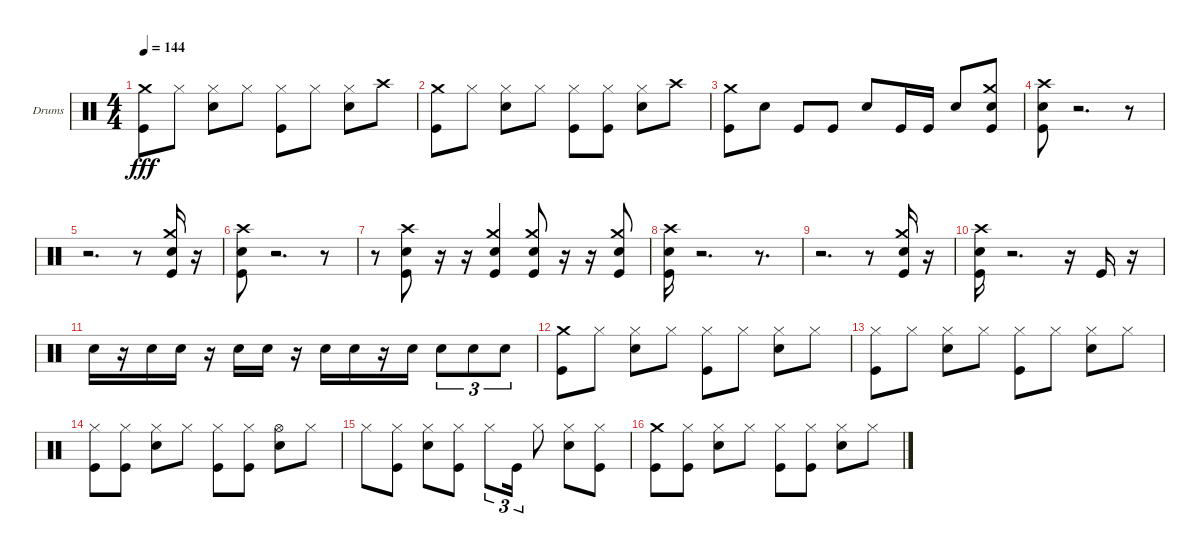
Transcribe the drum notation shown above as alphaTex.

\bracketExtendMode groupsimilarinstruments
\firstSystemTrackNameOrientation horizontal
\otherSystemsTrackNameOrientation horizontal
\track ("Drumkit" "Drums") {instrument percussion}
\staff {score}
\articulation defaults
\ts (4 4)
\tempo 144
\clef neutral
\ks c
("Kick (hit)" "Crash medium (hit)").8{dy fff} "Hi-Hat (closed)".8 ("Hi-Hat (closed)" "Snare (hit) 2").8 "Hi-Hat (closed)".8 ("Kick (hit)" "Hi-Hat (closed)").8 "Hi-Hat (closed)".8 ("Snare (hit) 2" "Hi-Hat (closed)").8 "Crash high (hit)".8 |
("Kick (hit)" "Crash medium (hit)").8 "Hi-Hat (closed)".8 ("Hi-Hat (closed)" "Snare (hit) 2").8 "Hi-Hat (closed)".8 ("Hi-Hat (closed)" "Kick (hit)").8 ("Hi-Hat (closed)" "Kick (hit)").8 ("Hi-Hat (closed)" "Snare (hit) 2").8 "Crash high (hit)".8 |
("Crash medium (hit)" "Kick (hit)").8 "Snare (hit) 2".8 "Kick (hit)".8 "Kick (hit)".8 "Snare (hit) 2".8 "Kick (hit)".16 "Kick (hit)".16 "Snare (hit) 2".8 ("Crash medium (hit)" "Snare (hit) 2" "Kick (hit)").8 |
("Kick (hit)" "Snare (hit) 2" "Crash high (hit)").8 r.2{d} r.8 |
r.2{d} r.8 ("Kick (hit)" "Snare (hit) 2" "Crash medium (hit)").16 r.16 |
("Kick (hit)" "Snare (hit) 2" "Crash high (hit)").8 r.2{d} r.8 |
r.8 ("Kick (hit)" "Snare (hit) 2" "Crash high (hit)").8 r.16 r.16 ("Kick (hit)" "Snare (hit) 2" "Crash medium (hit)").4 ("Kick (hit)" "Snare (hit) 2" "Crash medium (hit)").8 r.16 r.16 ("Kick (hit)" "Snare (hit) 2" "Crash medium (hit)").8 |
("Kick (hit)" "Snare (hit) 2" "Crash high (hit)").16 r.2{d} r.8{d} |
r.2{d} r.8 ("Kick (hit)" "Snare (hit) 2" "Crash medium (hit)").16 r.16 |
("Kick (hit)" "Snare (hit) 2" "Crash high (hit)").16 r.2{d} r.16 "Kick (hit)".16 r.16 |
"Snare (hit) 2".16 r.16 "Snare (hit) 2".16 "Snare (hit) 2".16 r.16 "Snare (hit) 2".16 "Snare (hit) 2".16 r.16 "Snare (hit) 2".16 "Snare (hit) 2".16 r.16 "Snare (hit) 2".16 "Snare (hit) 2".8{tu (3 2)} "Snare (hit) 2".8{tu (3 2)} "Snare (hit) 2".8{tu (3 2)} |
("Crash medium (hit)" "Kick (hit)").8 "Hi-Hat (closed)".8 ("Snare (hit) 2" "Hi-Hat (closed)").8 "Hi-Hat (closed)".8 ("Kick (hit)" "Hi-Hat (closed)").8 "Hi-Hat (closed)".8 ("Snare (hit) 2" "Hi-Hat (closed)").8 "Hi-Hat (closed)".8 |
("Kick (hit)" "Hi-Hat (closed)").8 "Hi-Hat (closed)".8 ("Snare (hit) 2" "Hi-Hat (closed)").8 "Hi-Hat (closed)".8 ("Kick (hit)" "Hi-Hat (closed)").8 "Hi-Hat (closed)".8 ("Snare (hit) 2" "Hi-Hat (closed)").8 "Hi-Hat (closed)".8 |
("Kick (hit)" "Hi-Hat (closed)").8 ("Kick (hit)" "Hi-Hat (closed)").8 ("Snare (hit) 2" "Hi-Hat (closed)").8 "Hi-Hat (closed)".8 ("Kick (hit)" "Hi-Hat (closed)").8 ("Kick (hit)" "Hi-Hat (closed)").8 ("Snare (hit) 2" "Hi-Hat (open)").8 "Hi-Hat (closed)".8 |
"Hi-Hat (closed)".8 ("Kick (hit)" "Hi-Hat (closed)").8 ("Snare (hit) 2" "Hi-Hat (closed)").8 ("Hi-Hat (closed)" "Kick (hit)").8 "Hi-Hat (closed)".8{tu (3 2)} "Kick (hit)".16{tu (3 2)} "Hi-Hat (closed)".8 ("Snare (hit) 2" "Hi-Hat (closed)").8 ("Hi-Hat (closed)" "Kick (hit)").8 |
("Kick (hit)" "Crash medium (hit)").8 ("Kick (hit)" "Hi-Hat (closed)").8 ("Snare (hit) 2" "Hi-Hat (closed)").8 "Hi-Hat (closed)".8 ("Kick (hit)" "Hi-Hat (closed)").8 ("Kick (hit)" "Hi-Hat (closed)").8 ("Snare (hit) 2" "Hi-Hat (closed)").8 "Hi-Hat (closed)".8
